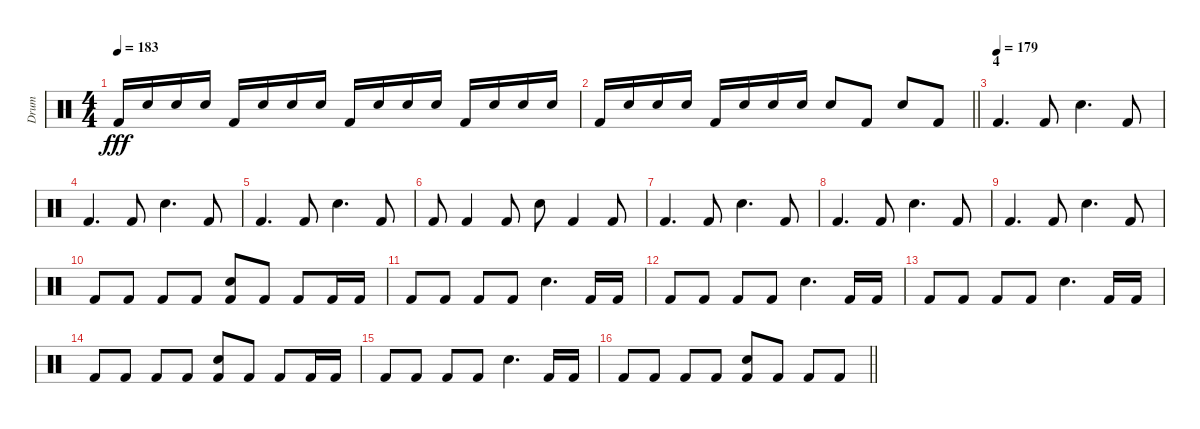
\track ("Drum" "Drum") {instrument percussion}
\staff {score}
\articulation defaults
\ts (4 4)
\tempo 183
\clef neutral
\ks c "Kick (hit) 2".16{dy fff} "Electric Snare (hit)".16 "Electric Snare (hit)".16 "Electric Snare (hit)".16 "Kick (hit) 2".16 "Electric Snare (hit)".16 "Electric Snare (hit)".16 "Electric Snare (hit)".16 "Kick (hit) 2".16 "Electric Snare (hit)".16 "Electric Snare (hit)".16 "Electric Snare (hit)".16 "Kick (hit) 2".16 "Electric Snare (hit)".16 "Electric Snare (hit)".16 "Electric Snare (hit)".16
|
\barLineRight lightlight "Kick (hit) 2".16 "Electric Snare (hit)".16 "Electric Snare (hit)".16 "Electric Snare (hit)".16 "Kick (hit) 2".16 "Electric Snare (hit)".16 "Electric Snare (hit)".16 "Electric Snare (hit)".16 "Electric Snare (hit)".8 "Kick (hit) 2".8 "Electric Snare (hit)".8 "Kick (hit) 2".8
|
\section ("" "4")
\tempo (179)
"Kick (hit) 2".4{d} "Kick (hit) 2".8 "Electric Snare (hit)".4{d} "Kick (hit) 2".8 |
"Kick (hit) 2".4{d} "Kick (hit) 2".8 "Electric Snare (hit)".4{d} "Kick (hit) 2".8 |
"Kick (hit) 2".4{d} "Kick (hit) 2".8 "Electric Snare (hit)".4{d} "Kick (hit) 2".8 |
"Kick (hit) 2".8 "Kick (hit) 2".4 "Kick (hit) 2".8 "Electric Snare (hit)".8 "Kick (hit) 2".4 "Kick (hit) 2".8 |
"Kick (hit) 2".4{d} "Kick (hit) 2".8 "Electric Snare (hit)".4{d} "Kick (hit) 2".8 |
"Kick (hit) 2".4{d} "Kick (hit) 2".8 "Electric Snare (hit)".4{d} "Kick (hit) 2".8 |
"Kick (hit) 2".4{d} "Kick (hit) 2".8 "Electric Snare (hit)".4{d} "Kick (hit) 2".8 |
"Kick (hit) 2".8 "Kick (hit) 2".8 "Kick (hit) 2".8 "Kick (hit) 2".8 ("Electric Snare (hit)" "Kick (hit) 2").8 "Kick (hit) 2".8 "Kick (hit) 2".8 "Kick (hit) 2".16 "Kick (hit) 2".16 |
"Kick (hit) 2".8 "Kick (hit) 2".8 "Kick (hit) 2".8 "Kick (hit) 2".8 "Electric Snare (hit)".4{d} "Kick (hit) 2".16 "Kick (hit) 2".16 |
"Kick (hit) 2".8 "Kick (hit) 2".8 "Kick (hit) 2".8 "Kick (hit) 2".8 "Electric Snare (hit)".4{d} "Kick (hit) 2".16 "Kick (hit) 2".16 |
"Kick (hit) 2".8 "Kick (hit) 2".8 "Kick (hit) 2".8 "Kick (hit) 2".8 "Electric Snare (hit)".4{d} "Kick (hit) 2".16 "Kick (hit) 2".16 |
"Kick (hit) 2".8 "Kick (hit) 2".8 "Kick (hit) 2".8 "Kick (hit) 2".8 ("Electric Snare (hit)" "Kick (hit) 2").8 "Kick (hit) 2".8 "Kick (hit) 2".8 "Kick (hit) 2".16 "Kick (hit) 2".16 |
"Kick (hit) 2".8 "Kick (hit) 2".8 "Kick (hit) 2".8 "Kick (hit) 2".8 "Electric Snare (hit)".4{d} "Kick (hit) 2".16 "Kick (hit) 2".16 |
\barLineRight lightlight "Kick (hit) 2".8 "Kick (hit) 2".8 "Kick (hit) 2".8 "Kick (hit) 2".8
("Electric Snare (hit)" "Kick (hit) 2").8 "Kick (hit) 2".8 "Kick (hit) 2".8 "Kick (hit) 2".8
